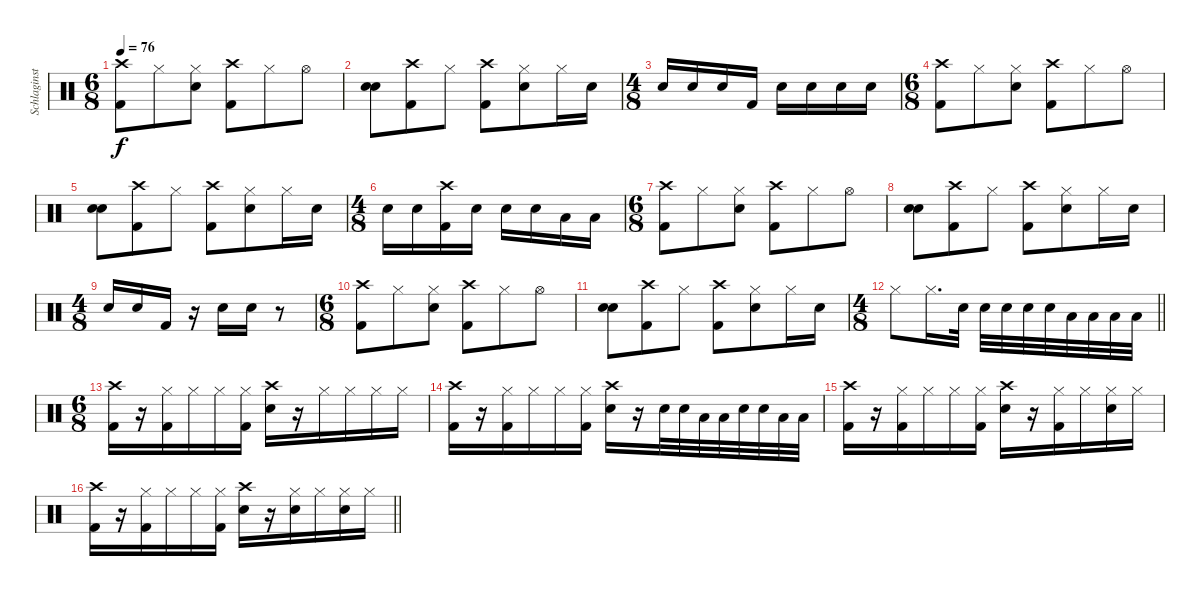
\track ("Schlaginstrumente - Auswahl" "Schlaginst") {instrument percussion}
\staff {score}
\articulation defaults
\ts (6 8)
\tempo 76
\clef neutral
\ks c
("Crash high (hit)" "Kick (hit) 2").8{dy f} "Hi-Hat (closed)".8 ("Hi-Hat (closed)" "Snare (hit) 2").8 ("Crash high (hit)" "Kick (hit) 2").8 "Hi-Hat (closed)".8 "Hi-Hat (open)".8 |
("Snare (hit) 2" "Snare (hit) 2").8{bd 240} ("Crash high (hit)" "Kick (hit) 2").8 "Hi-Hat (closed)".8 ("Crash high (hit)" "Kick (hit) 2").8 ("Hi-Hat (closed)" "Snare (hit) 2").8 "Hi-Hat (closed)".16 "Snare (hit) 2".16 |
\ts (4 8)
"Snare (hit) 2".16 "Snare (hit) 2".16 "Snare (hit) 2".16 "Kick (hit) 2".16 "Snare (hit) 2".16 "Snare (hit) 2".16 "Snare (hit) 2".16 "Snare (hit) 2".16 |
\ts (6 8)
("Crash high (hit)" "Kick (hit) 2").8 "Hi-Hat (closed)".8 ("Hi-Hat (closed)" "Snare (hit) 2").8 ("Crash high (hit)" "Kick (hit) 2").8 "Hi-Hat (closed)".8 "Hi-Hat (open)".8 |
("Snare (hit) 2" "Snare (hit) 2").8{bd 240} ("Crash high (hit)" "Kick (hit) 2").8 "Hi-Hat (closed)".8 ("Crash high (hit)" "Kick (hit) 2").8 ("Hi-Hat (closed)" "Snare (hit) 2").8 "Hi-Hat (closed)".16 "Snare (hit) 2".16 |
\ts (4 8)
"Snare (hit) 2".16 "Snare (hit) 2".16 ("Crash high (hit)" "Kick (hit) 2").16 "Snare (hit) 2".16 "Snare (hit) 2".16 "Snare (hit) 2".16 "Low Tom (hit)".16 "Low Tom (hit)".16 |
\ts (6 8)
("Crash high (hit)" "Kick (hit) 2").8 "Hi-Hat (closed)".8 ("Hi-Hat (closed)" "Snare (hit) 2").8 ("Crash high (hit)" "Kick (hit) 2").8 "Hi-Hat (closed)".8 "Hi-Hat (open)".8 |
("Snare (hit) 2" "Snare (hit) 2").8{bd 240} ("Crash high (hit)" "Kick (hit) 2").8 "Hi-Hat (closed)".8 ("Crash high (hit)" "Kick (hit) 2").8 ("Hi-Hat (closed)" "Snare (hit) 2").8 "Hi-Hat (closed)".16 "Snare (hit) 2".16 |
\ts (4 8)
"Snare (hit) 2".16 "Snare (hit) 2".16 "Kick (hit) 2".16 r.16 "Snare (hit) 2".16 "Snare (hit) 2".16 r.8 |
\ts (6 8)
("Crash high (hit)" "Kick (hit) 2").8 "Hi-Hat (closed)".8 ("Hi-Hat (closed)" "Snare (hit) 2").8 ("Crash high (hit)" "Kick (hit) 2").8 "Hi-Hat (closed)".8 "Hi-Hat (open)".8 |
("Snare (hit) 2" "Snare (hit) 2").8{bd 240} ("Crash high (hit)" "Kick (hit) 2").8 "Hi-Hat (closed)".8 ("Crash high (hit)" "Kick (hit) 2").8 ("Hi-Hat (closed)" "Snare (hit) 2").8 "Hi-Hat (closed)".16 "Snare (hit) 2".16 |
\ts (4 8)
\barLineRight lightlight "Hi-Hat (closed)".8 "Hi-Hat (closed)".16{d} "Snare (hit) 2".32 "Snare (hit) 2".32 "Snare (hit) 2".32 "Snare (hit) 2".32 "Snare (hit) 2".32 "Low Tom (hit)".32 "Low Tom (hit)".32 "Low Tom (hit)".32 "Low Tom (hit)".32
|
\ts (6 8)
("Crash high (hit)" "Kick (hit) 2").16 r.16 ("Hi-Hat (closed)" "Kick (hit) 2").16 "Hi-Hat (closed)".16 "Hi-Hat (closed)".16 ("Hi-Hat (closed)" "Kick (hit) 2").16 ("Crash high (hit)" "Snare (hit) 2").16 r.16 "Hi-Hat (closed)".16 "Hi-Hat (closed)".16 "Hi-Hat (closed)".16 "Hi-Hat (closed)".16 |
("Crash high (hit)" "Kick (hit) 2").16 r.16 ("Hi-Hat (closed)" "Kick (hit) 2").16 "Hi-Hat (closed)".16 "Hi-Hat (closed)".16 ("Hi-Hat (closed)" "Kick (hit) 2").16 ("Crash high (hit)" "Snare (hit) 2").16 r.16 "Snare (hit) 2".32 "Snare (hit) 2".32 "Low Tom (hit)".32 "Low Tom (hit)".32 "Snare (hit) 2".32 "Snare (hit) 2".32 "Low Tom (hit)".32 "Low Tom (hit)".32 |
("Crash high (hit)" "Kick (hit) 2").16 r.16 ("Hi-Hat (closed)" "Kick (hit) 2").16 "Hi-Hat (closed)".16 "Hi-Hat (closed)".16 ("Hi-Hat (closed)" "Kick (hit) 2").16 ("Crash high (hit)" "Snare (hit) 2").16 r.16 ("Hi-Hat (closed)" "Kick (hit) 2").16 "Hi-Hat (closed)".16 ("Hi-Hat (closed)" "Snare (hit) 2").16 "Hi-Hat (closed)".16 |
\barLineRight lightlight
("Crash high (hit)" "Kick (hit) 2").16 r.16 ("Hi-Hat (closed)" "Kick (hit) 2").16 "Hi-Hat (closed)".16 "Hi-Hat (closed)".16 ("Hi-Hat (closed)" "Kick (hit) 2").16 ("Crash high (hit)" "Snare (hit) 2").16 r.16 ("Hi-Hat (closed)" "Snare (hit) 2").16 "Hi-Hat (closed)".16 ("Hi-Hat (closed)" "Snare (hit) 2").16 "Hi-Hat (closed)".16
